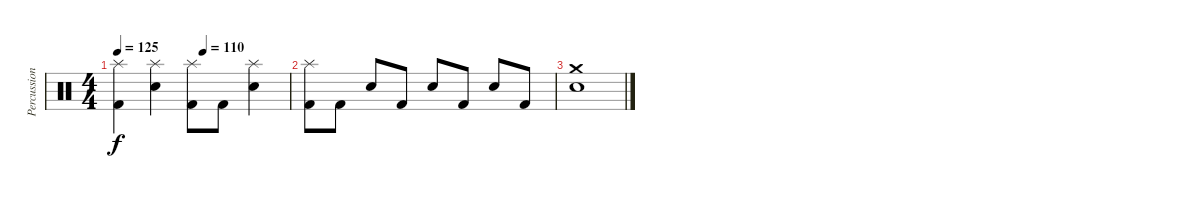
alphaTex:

\track ("Percussion" "Percussion") {instrument percussion}
\staff {score}
\articulation defaults
\ts (4 4)
\tempo 125
\tempo (110 0.5)
\clef neutral
\ks c
("Splash (hit)" "Kick (hit) 2").4{dy f} ("Splash (hit)" "Snare (hit) 2").4 ("Splash (hit)" "Kick (hit) 2").8 "Kick (hit) 2".8 ("Splash (hit)" "Snare (hit) 2").4 |
("Splash (hit)" "Kick (hit) 2").8 "Kick (hit) 2".8 "Snare (hit) 2".8 "Kick (hit) 2".8 "Snare (hit) 2".8 "Kick (hit) 2".8 "Snare (hit) 2".8 "Kick (hit) 2".8 |
("Crash medium (hit)" "Snare (hit) 2").1
